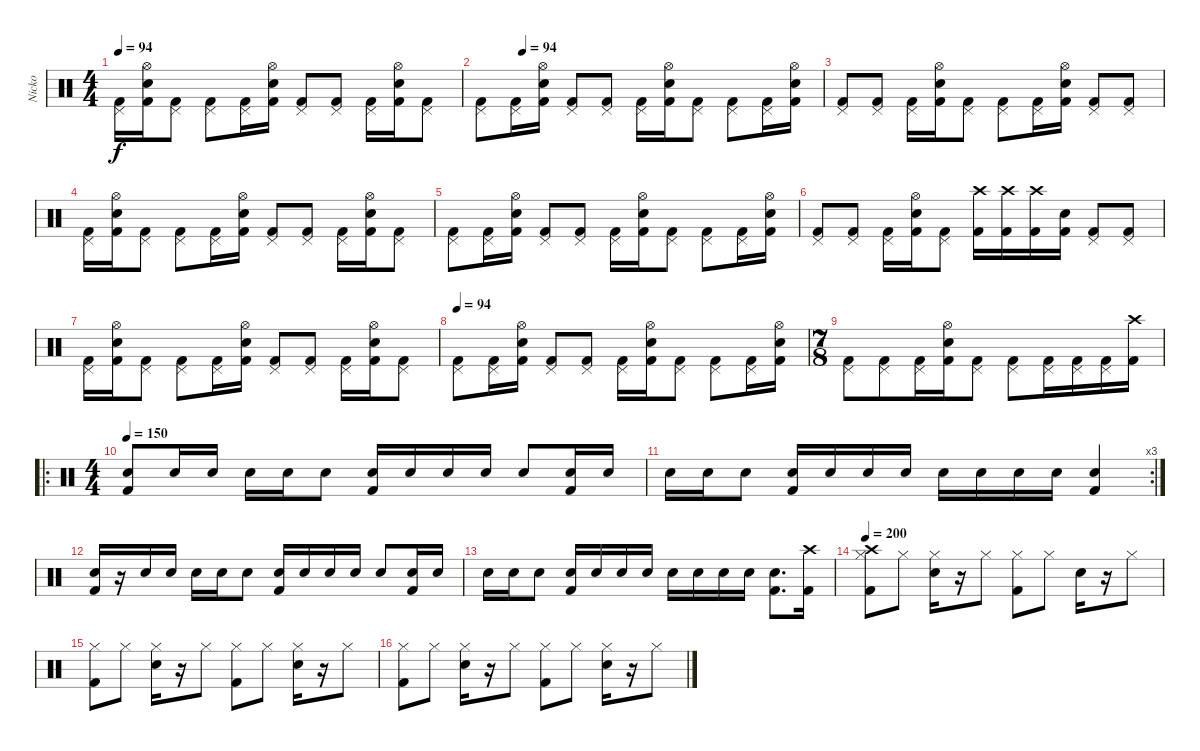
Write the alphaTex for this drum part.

\track ("Nicko" "Nicko") {instrument percussion}
\staff {score}
\articulation defaults
\ts (4 4)
\tempo 94
\clef neutral
\ks c
("Kick (hit) 2" "Pedal Hi-Hat (hit)").16{dy f} ("Kick (hit) 2" "Electric Snare (hit)" "Hi-Hat (open)").16 ("Kick (hit) 2" "Pedal Hi-Hat (hit)").8 ("Kick (hit) 2" "Pedal Hi-Hat (hit)").8 ("Kick (hit) 2" "Pedal Hi-Hat (hit)").16 ("Kick (hit) 2" "Electric Snare (hit)" "Hi-Hat (open)").16 ("Kick (hit) 2" "Pedal Hi-Hat (hit)").8 ("Kick (hit) 2" "Pedal Hi-Hat (hit)").8 ("Kick (hit) 2" "Pedal Hi-Hat (hit)").16 ("Kick (hit) 2" "Electric Snare (hit)" "Hi-Hat (open)").16 ("Kick (hit) 2" "Pedal Hi-Hat (hit)").8 |
\tempo (94 0.125)
("Kick (hit) 2" "Pedal Hi-Hat (hit)").8 ("Kick (hit) 2" "Pedal Hi-Hat (hit)").16 ("Kick (hit) 2" "Electric Snare (hit)" "Hi-Hat (open)").16 ("Kick (hit) 2" "Pedal Hi-Hat (hit)").8 ("Kick (hit) 2" "Pedal Hi-Hat (hit)").8 ("Kick (hit) 2" "Pedal Hi-Hat (hit)").16 ("Kick (hit) 2" "Electric Snare (hit)" "Hi-Hat (open)").16 ("Kick (hit) 2" "Pedal Hi-Hat (hit)").8 ("Kick (hit) 2" "Pedal Hi-Hat (hit)").8 ("Kick (hit) 2" "Pedal Hi-Hat (hit)").16 ("Kick (hit) 2" "Electric Snare (hit)" "Hi-Hat (open)").16 |
("Kick (hit) 2" "Pedal Hi-Hat (hit)").8 ("Kick (hit) 2" "Pedal Hi-Hat (hit)").8 ("Kick (hit) 2" "Pedal Hi-Hat (hit)").16 ("Kick (hit) 2" "Electric Snare (hit)" "Hi-Hat (open)").16 ("Kick (hit) 2" "Pedal Hi-Hat (hit)").8 ("Kick (hit) 2" "Pedal Hi-Hat (hit)").8 ("Kick (hit) 2" "Pedal Hi-Hat (hit)").16 ("Kick (hit) 2" "Electric Snare (hit)" "Hi-Hat (open)").16 ("Kick (hit) 2" "Pedal Hi-Hat (hit)").8 ("Kick (hit) 2" "Pedal Hi-Hat (hit)").8 |
("Kick (hit) 2" "Pedal Hi-Hat (hit)").16 ("Kick (hit) 2" "Electric Snare (hit)" "Hi-Hat (open)").16 ("Kick (hit) 2" "Pedal Hi-Hat (hit)").8 ("Kick (hit) 2" "Pedal Hi-Hat (hit)").8 ("Kick (hit) 2" "Pedal Hi-Hat (hit)").16 ("Kick (hit) 2" "Electric Snare (hit)" "Hi-Hat (open)").16 ("Kick (hit) 2" "Pedal Hi-Hat (hit)").8 ("Kick (hit) 2" "Pedal Hi-Hat (hit)").8 ("Kick (hit) 2" "Pedal Hi-Hat (hit)").16 ("Kick (hit) 2" "Electric Snare (hit)" "Hi-Hat (open)").16 ("Kick (hit) 2" "Pedal Hi-Hat (hit)").8 |
("Kick (hit) 2" "Pedal Hi-Hat (hit)").8 ("Kick (hit) 2" "Pedal Hi-Hat (hit)").16 ("Kick (hit) 2" "Electric Snare (hit)" "Hi-Hat (open)").16 ("Kick (hit) 2" "Pedal Hi-Hat (hit)").8 ("Kick (hit) 2" "Pedal Hi-Hat (hit)").8 ("Kick (hit) 2" "Pedal Hi-Hat (hit)").16 ("Kick (hit) 2" "Electric Snare (hit)" "Hi-Hat (open)").16 ("Kick (hit) 2" "Pedal Hi-Hat (hit)").8 ("Kick (hit) 2" "Pedal Hi-Hat (hit)").8 ("Kick (hit) 2" "Pedal Hi-Hat (hit)").16 ("Kick (hit) 2" "Electric Snare (hit)" "Hi-Hat (open)").16 |
("Kick (hit) 2" "Pedal Hi-Hat (hit)").8 ("Kick (hit) 2" "Pedal Hi-Hat (hit)").8 ("Kick (hit) 2" "Pedal Hi-Hat (hit)").16 ("Kick (hit) 2" "Electric Snare (hit)" "Hi-Hat (open)").16 ("Kick (hit) 2" "Pedal Hi-Hat (hit)").8 ("Kick (hit) 2" "Crash high (hit)").16 ("Kick (hit) 2" "Crash high (hit)").16 ("Kick (hit) 2" "Crash high (hit)").16 ("Kick (hit) 2" "Electric Snare (hit)").16 ("Kick (hit) 2" "Pedal Hi-Hat (hit)").8 ("Kick (hit) 2" "Pedal Hi-Hat (hit)").8 |
("Kick (hit) 2" "Pedal Hi-Hat (hit)").16 ("Kick (hit) 2" "Electric Snare (hit)" "Hi-Hat (open)").16 ("Kick (hit) 2" "Pedal Hi-Hat (hit)").8 ("Kick (hit) 2" "Pedal Hi-Hat (hit)").8 ("Kick (hit) 2" "Pedal Hi-Hat (hit)").16 ("Kick (hit) 2" "Electric Snare (hit)" "Hi-Hat (open)").16 ("Kick (hit) 2" "Pedal Hi-Hat (hit)").8 ("Kick (hit) 2" "Pedal Hi-Hat (hit)").8 ("Kick (hit) 2" "Pedal Hi-Hat (hit)").16 ("Kick (hit) 2" "Electric Snare (hit)" "Hi-Hat (open)").16 ("Kick (hit) 2" "Pedal Hi-Hat (hit)").8 |
\tempo 94
("Kick (hit) 2" "Pedal Hi-Hat (hit)").8 ("Kick (hit) 2" "Pedal Hi-Hat (hit)").16 ("Kick (hit) 2" "Electric Snare (hit)" "Hi-Hat (open)").16 ("Kick (hit) 2" "Pedal Hi-Hat (hit)").8 ("Kick (hit) 2" "Pedal Hi-Hat (hit)").8 ("Kick (hit) 2" "Pedal Hi-Hat (hit)").16 ("Kick (hit) 2" "Electric Snare (hit)" "Hi-Hat (open)").16 ("Kick (hit) 2" "Pedal Hi-Hat (hit)").8 ("Kick (hit) 2" "Pedal Hi-Hat (hit)").8 ("Kick (hit) 2" "Pedal Hi-Hat (hit)").16 ("Kick (hit) 2" "Electric Snare (hit)" "Hi-Hat (open)").16 |
\ts (7 8)
("Kick (hit) 2" "Pedal Hi-Hat (hit)").8 ("Kick (hit) 2" "Pedal Hi-Hat (hit)").8 ("Kick (hit) 2" "Pedal Hi-Hat (hit)").16 ("Kick (hit) 2" "Electric Snare (hit)" "Hi-Hat (open)").16 ("Kick (hit) 2" "Pedal Hi-Hat (hit)").8 ("Kick (hit) 2" "Pedal Hi-Hat (hit)").8 ("Kick (hit) 2" "Pedal Hi-Hat (hit)").16 ("Kick (hit) 2" "Pedal Hi-Hat (hit)").16 ("Kick (hit) 2" "Pedal Hi-Hat (hit)").16 ("Kick (hit) 2" "Crash high (hit)").16 |
\ro
\ts (4 4)
\tempo 138
\tempo 150
("Electric Snare (hit)" "Kick (hit) 2").8 "Electric Snare (hit)".16 "Electric Snare (hit)".16 "Electric Snare (hit)".16 "Electric Snare (hit)".16 "Electric Snare (hit)".8 ("Electric Snare (hit)" "Kick (hit) 2").16 "Electric Snare (hit)".16 "Electric Snare (hit)".16 "Electric Snare (hit)".16 "Electric Snare (hit)".8 ("Electric Snare (hit)" "Kick (hit) 2").16 "Electric Snare (hit)".16 |
\rc 3 "Electric Snare (hit)".16 "Electric Snare (hit)".16 "Electric Snare (hit)".8
("Electric Snare (hit)" "Kick (hit) 2").16 "Electric Snare (hit)".16 "Electric Snare (hit)".16 "Electric Snare (hit)".16 "Electric Snare (hit)".16 "Electric Snare (hit)".16 "Electric Snare (hit)".16 "Electric Snare (hit)".16 ("Electric Snare (hit)" "Kick (hit) 2").4 |
("Electric Snare (hit)" "Kick (hit) 2").16 r.16 "Electric Snare (hit)".16 "Electric Snare (hit)".16 "Electric Snare (hit)".16 "Electric Snare (hit)".16 "Electric Snare (hit)".8 ("Electric Snare (hit)" "Kick (hit) 2").16 "Electric Snare (hit)".16 "Electric Snare (hit)".16 "Electric Snare (hit)".16 "Electric Snare (hit)".8 ("Electric Snare (hit)" "Kick (hit) 2").16 "Electric Snare (hit)".16 |
"Electric Snare (hit)".16 "Electric Snare (hit)".16 "Electric Snare (hit)".8 ("Electric Snare (hit)" "Kick (hit) 2").16 "Electric Snare (hit)".16 "Electric Snare (hit)".16 "Electric Snare (hit)".16 "Electric Snare (hit)".16 "Electric Snare (hit)".16 "Electric Snare (hit)".16 "Electric Snare (hit)".16 ("Electric Snare (hit)" "Kick (hit) 2").8{d} ("Crash high (hit)" "Kick (hit) 2").16 |
\tempo 200
("Kick (hit) 2" "Hi-Hat (closed)" "Crash high (hit)").8 "Hi-Hat (closed)".8 ("Snare (hit) 2" "Hi-Hat (closed)").16 r.16 "Hi-Hat (closed)".8 ("Kick (hit) 2" "Hi-Hat (closed)").8 "Hi-Hat (closed)".8 "Snare (hit) 2".16 r.16 "Hi-Hat (closed)".8 |
("Kick (hit) 2" "Hi-Hat (closed)").8 "Hi-Hat (closed)".8 ("Snare (hit) 2" "Hi-Hat (closed)").16 r.16 "Hi-Hat (closed)".8 ("Kick (hit) 2" "Hi-Hat (closed)").8 "Hi-Hat (closed)".8 ("Snare (hit) 2" "Hi-Hat (closed)").16 r.16 "Hi-Hat (closed)".8 |
("Kick (hit) 2" "Hi-Hat (closed)").8 "Hi-Hat (closed)".8 ("Snare (hit) 2" "Hi-Hat (closed)").16 r.16 "Hi-Hat (closed)".8 ("Kick (hit) 2" "Hi-Hat (closed)").8 "Hi-Hat (closed)".8 ("Snare (hit) 2" "Hi-Hat (closed)").16 r.16 "Hi-Hat (closed)".8
